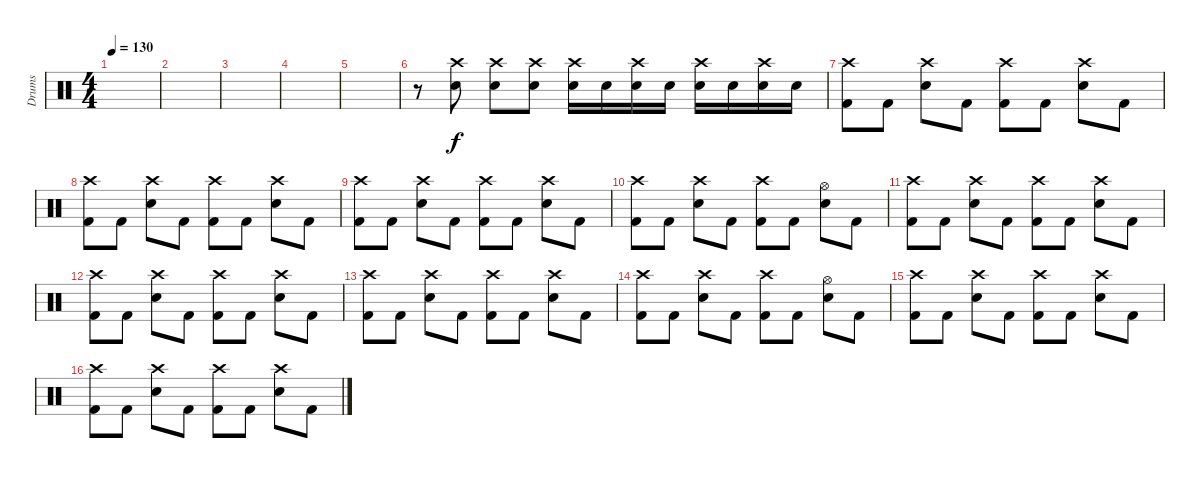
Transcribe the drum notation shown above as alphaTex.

\track ("Drums" "Drums") {instrument percussion}
\staff {score}
\articulation defaults
\ts (4 4)
\tempo 130
\clef neutral
\ks c
|
|
|
|
|
r.8 ("Crash high (hit)" "Snare (hit) 2").8 ("Crash high (hit)" "Snare (hit) 2").8 ("Crash high (hit)" "Snare (hit) 2").8 ("Crash high (hit)" "Snare (hit) 2").16 "Snare (hit) 2".16 ("Crash high (hit)" "Snare (hit) 2").16 "Snare (hit) 2".16 ("Crash high (hit)" "Snare (hit) 2").16 "Snare (hit) 2".16 ("Crash high (hit)" "Snare (hit) 2").16 "Snare (hit) 2".16 |
("Crash high (hit)" "Kick (hit) 2").8 "Kick (hit) 2".8 ("Crash high (hit)" "Electric Snare (hit)").8 "Kick (hit) 2".8 ("Crash high (hit)" "Kick (hit) 2").8 "Kick (hit) 2".8 ("Crash high (hit)" "Electric Snare (hit)").8 "Kick (hit) 2".8 |
("Crash high (hit)" "Kick (hit) 2").8 "Kick (hit) 2".8 ("Crash high (hit)" "Electric Snare (hit)").8 "Kick (hit) 2".8 ("Crash high (hit)" "Kick (hit) 2").8 "Kick (hit) 2".8 ("Crash high (hit)" "Electric Snare (hit)").8 "Kick (hit) 2".8 |
("Crash high (hit)" "Kick (hit) 2").8 "Kick (hit) 2".8 ("Crash high (hit)" "Electric Snare (hit)").8 "Kick (hit) 2".8 ("Crash high (hit)" "Kick (hit) 2").8 "Kick (hit) 2".8 ("Crash high (hit)" "Electric Snare (hit)").8 "Kick (hit) 2".8 |
("Crash high (hit)" "Kick (hit) 2").8 "Kick (hit) 2".8 ("Crash high (hit)" "Electric Snare (hit)").8 "Kick (hit) 2".8 ("Crash high (hit)" "Kick (hit) 2").8 "Kick (hit) 2".8 ("Hi-Hat (open)" "Electric Snare (hit)").8 "Kick (hit) 2".8 |
("Crash high (hit)" "Kick (hit) 2").8 "Kick (hit) 2".8 ("Crash high (hit)" "Electric Snare (hit)").8 "Kick (hit) 2".8 ("Crash high (hit)" "Kick (hit) 2").8 "Kick (hit) 2".8 ("Crash high (hit)" "Electric Snare (hit)").8 "Kick (hit) 2".8 |
("Crash high (hit)" "Kick (hit) 2").8 "Kick (hit) 2".8 ("Crash high (hit)" "Electric Snare (hit)").8 "Kick (hit) 2".8 ("Crash high (hit)" "Kick (hit) 2").8 "Kick (hit) 2".8 ("Crash high (hit)" "Electric Snare (hit)").8 "Kick (hit) 2".8 |
("Crash high (hit)" "Kick (hit) 2").8 "Kick (hit) 2".8 ("Crash high (hit)" "Electric Snare (hit)").8 "Kick (hit) 2".8 ("Crash high (hit)" "Kick (hit) 2").8 "Kick (hit) 2".8 ("Crash high (hit)" "Electric Snare (hit)").8 "Kick (hit) 2".8 |
("Crash high (hit)" "Kick (hit) 2").8 "Kick (hit) 2".8 ("Crash high (hit)" "Electric Snare (hit)").8 "Kick (hit) 2".8 ("Crash high (hit)" "Kick (hit) 2").8 "Kick (hit) 2".8 ("Hi-Hat (open)" "Electric Snare (hit)").8 "Kick (hit) 2".8 |
("Crash high (hit)" "Kick (hit) 2").8 "Kick (hit) 2".8 ("Crash high (hit)" "Electric Snare (hit)").8 "Kick (hit) 2".8 ("Crash high (hit)" "Kick (hit) 2").8 "Kick (hit) 2".8 ("Crash high (hit)" "Electric Snare (hit)").8 "Kick (hit) 2".8 |
("Crash high (hit)" "Kick (hit) 2").8 "Kick (hit) 2".8 ("Crash high (hit)" "Electric Snare (hit)").8 "Kick (hit) 2".8 ("Crash high (hit)" "Kick (hit) 2").8 "Kick (hit) 2".8 ("Crash high (hit)" "Electric Snare (hit)").8 "Kick (hit) 2".8
